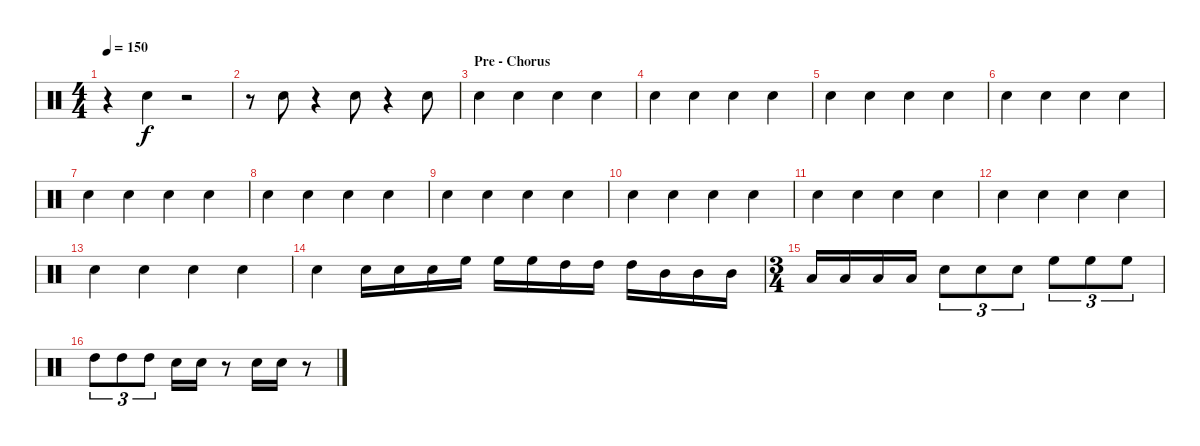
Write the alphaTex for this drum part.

\track "" {instrument percussion}
\staff {score}
\articulation defaults
\ts (4 4)
\tempo 150
\clef neutral
\ks c
r.4{dy f} "Electric Snare (hit)".4 r.2 |
r.8 "Electric Snare (hit)".8 r.4 "Electric Snare (hit)".8 r.4 "Electric Snare (hit)".8 |
\section ("" "Pre - Chorus")
"Electric Snare (hit)".4 "Electric Snare (hit)".4 "Electric Snare (hit)".4 "Electric Snare (hit)".4 |
"Electric Snare (hit)".4 "Electric Snare (hit)".4 "Electric Snare (hit)".4 "Electric Snare (hit)".4 |
"Electric Snare (hit)".4 "Electric Snare (hit)".4 "Electric Snare (hit)".4 "Electric Snare (hit)".4 |
"Electric Snare (hit)".4 "Electric Snare (hit)".4 "Electric Snare (hit)".4 "Electric Snare (hit)".4 |
"Electric Snare (hit)".4 "Electric Snare (hit)".4 "Electric Snare (hit)".4 "Electric Snare (hit)".4 |
"Electric Snare (hit)".4 "Electric Snare (hit)".4 "Electric Snare (hit)".4 "Electric Snare (hit)".4 |
"Electric Snare (hit)".4 "Electric Snare (hit)".4 "Electric Snare (hit)".4 "Electric Snare (hit)".4 |
"Electric Snare (hit)".4 "Electric Snare (hit)".4 "Electric Snare (hit)".4 "Electric Snare (hit)".4 |
"Electric Snare (hit)".4 "Electric Snare (hit)".4 "Electric Snare (hit)".4 "Electric Snare (hit)".4 |
"Electric Snare (hit)".4 "Electric Snare (hit)".4 "Electric Snare (hit)".4 "Electric Snare (hit)".4 |
"Electric Snare (hit)".4 "Electric Snare (hit)".4 "Electric Snare (hit)".4 "Electric Snare (hit)".4 |
"Electric Snare (hit)".4 "Electric Snare (hit)".16 "Electric Snare (hit)".16 "Electric Snare (hit)".16 "High Floor Tom (hit)".16 "High Floor Tom (hit)".16 "High Floor Tom (hit)".16 "High Tom (hit)".16 "High Tom (hit)".16 "High Tom (hit)".16 "Mid Tom (hit)".16 "Mid Tom (hit)".16 "Mid Tom (hit)".16 |
\ts (3 4)
"Low Tom (hit)".16 "Low Tom (hit)".16 "Low Tom (hit)".16 "Low Tom (hit)".16 "Electric Snare (hit)".8{tu (3 2)} "Electric Snare (hit)".8{tu (3 2)} "Electric Snare (hit)".8{tu (3 2)} "High Floor Tom (hit)".8{tu (3 2)} "High Floor Tom (hit)".8{tu (3 2)} "High Floor Tom (hit)".8{tu (3 2)} |
"High Tom (hit)".8{tu (3 2)} "High Tom (hit)".8{tu (3 2)} "High Tom (hit)".8{tu (3 2)} "Electric Snare (hit)".16 "Electric Snare (hit)".16 r.8 "Electric Snare (hit)".16 "Electric Snare (hit)".16 r.8
